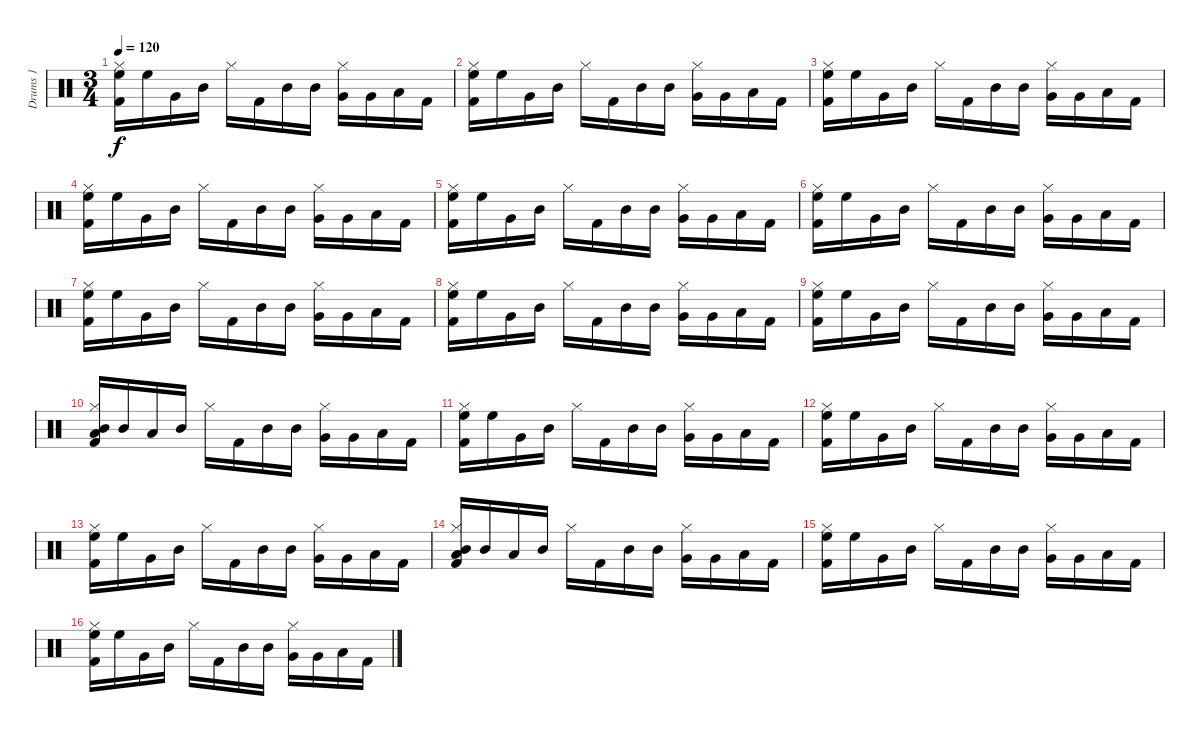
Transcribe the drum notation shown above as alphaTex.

\track ("Drums 1" "Drums 1") {instrument percussion}
\staff {score}
\articulation defaults
\ts (3 4)
\tempo 120
\clef neutral
\ks c
("High Floor Tom (hit)" "Kick (hit) 2" "Hi-Hat (closed)").16{dy f} "High Floor Tom (hit)".16 "Very Low Tom (hit)".16 "Mid Tom (hit)".16 "Hi-Hat (closed)".16 "Kick (hit) 2".16 "Mid Tom (hit)".16 "Mid Tom (hit)".16 ("Very Low Tom (hit)" "Hi-Hat (closed)").16 "Very Low Tom (hit)".16 "Low Floor Tom (hit)".16 "Kick (hit) 2".16 |
("High Floor Tom (hit)" "Kick (hit) 2" "Hi-Hat (closed)").16 "High Floor Tom (hit)".16 "Very Low Tom (hit)".16 "Mid Tom (hit)".16 "Hi-Hat (closed)".16 "Kick (hit) 2".16 "Mid Tom (hit)".16 "Mid Tom (hit)".16 ("Very Low Tom (hit)" "Hi-Hat (closed)").16 "Very Low Tom (hit)".16 "Low Floor Tom (hit)".16 "Kick (hit) 2".16 |
("High Floor Tom (hit)" "Kick (hit) 2" "Hi-Hat (closed)").16 "High Floor Tom (hit)".16 "Very Low Tom (hit)".16 "Mid Tom (hit)".16 "Hi-Hat (closed)".16 "Kick (hit) 2".16 "Mid Tom (hit)".16 "Mid Tom (hit)".16 ("Very Low Tom (hit)" "Hi-Hat (closed)").16 "Very Low Tom (hit)".16 "Low Floor Tom (hit)".16 "Kick (hit) 2".16 |
("High Floor Tom (hit)" "Kick (hit) 2" "Hi-Hat (closed)").16 "High Floor Tom (hit)".16 "Very Low Tom (hit)".16 "Mid Tom (hit)".16 "Hi-Hat (closed)".16 "Kick (hit) 2".16 "Mid Tom (hit)".16 "Mid Tom (hit)".16 ("Very Low Tom (hit)" "Hi-Hat (closed)").16 "Very Low Tom (hit)".16 "Low Floor Tom (hit)".16 "Kick (hit) 2".16 |
("High Floor Tom (hit)" "Kick (hit) 2" "Hi-Hat (closed)").16 "High Floor Tom (hit)".16 "Very Low Tom (hit)".16 "Mid Tom (hit)".16 "Hi-Hat (closed)".16 "Kick (hit) 2".16 "Mid Tom (hit)".16 "Mid Tom (hit)".16 ("Very Low Tom (hit)" "Hi-Hat (closed)").16 "Very Low Tom (hit)".16 "Low Floor Tom (hit)".16 "Kick (hit) 2".16 |
("High Floor Tom (hit)" "Kick (hit) 2" "Hi-Hat (closed)").16 "High Floor Tom (hit)".16 "Very Low Tom (hit)".16 "Mid Tom (hit)".16 "Hi-Hat (closed)".16 "Kick (hit) 2".16 "Mid Tom (hit)".16 "Mid Tom (hit)".16 ("Very Low Tom (hit)" "Hi-Hat (closed)").16 "Very Low Tom (hit)".16 "Low Floor Tom (hit)".16 "Kick (hit) 2".16 |
("High Floor Tom (hit)" "Kick (hit) 2" "Hi-Hat (closed)").16 "High Floor Tom (hit)".16 "Very Low Tom (hit)".16 "Mid Tom (hit)".16 "Hi-Hat (closed)".16 "Kick (hit) 2".16 "Mid Tom (hit)".16 "Mid Tom (hit)".16 ("Very Low Tom (hit)" "Hi-Hat (closed)").16 "Very Low Tom (hit)".16 "Low Floor Tom (hit)".16 "Kick (hit) 2".16 |
("High Floor Tom (hit)" "Kick (hit) 2" "Hi-Hat (closed)").16 "High Floor Tom (hit)".16 "Very Low Tom (hit)".16 "Mid Tom (hit)".16 "Hi-Hat (closed)".16 "Kick (hit) 2".16 "Mid Tom (hit)".16 "Mid Tom (hit)".16 ("Very Low Tom (hit)" "Hi-Hat (closed)").16 "Very Low Tom (hit)".16 "Low Floor Tom (hit)".16 "Kick (hit) 2".16 |
("High Floor Tom (hit)" "Kick (hit) 2" "Hi-Hat (closed)").16 "High Floor Tom (hit)".16 "Very Low Tom (hit)".16 "Mid Tom (hit)".16 "Hi-Hat (closed)".16 "Kick (hit) 2".16 "Mid Tom (hit)".16 "Mid Tom (hit)".16 ("Very Low Tom (hit)" "Hi-Hat (closed)").16 "Very Low Tom (hit)".16 "Low Floor Tom (hit)".16 "Kick (hit) 2".16 |
("Mid Tom (hit)" "Low Floor Tom (hit)" "Kick (hit) 2" "Hi-Hat (closed)").16 "Mid Tom (hit)".16 "Low Floor Tom (hit)".16 "Mid Tom (hit)".16 "Hi-Hat (closed)".16 "Kick (hit) 2".16 "Mid Tom (hit)".16 "Mid Tom (hit)".16 ("Very Low Tom (hit)" "Hi-Hat (closed)").16 "Very Low Tom (hit)".16 "Low Floor Tom (hit)".16 "Kick (hit) 2".16 |
("High Floor Tom (hit)" "Kick (hit) 2" "Hi-Hat (closed)").16 "High Floor Tom (hit)".16 "Very Low Tom (hit)".16 "Mid Tom (hit)".16 "Hi-Hat (closed)".16 "Kick (hit) 2".16 "Mid Tom (hit)".16 "Mid Tom (hit)".16 ("Very Low Tom (hit)" "Hi-Hat (closed)").16 "Very Low Tom (hit)".16 "Low Floor Tom (hit)".16 "Kick (hit) 2".16 |
("High Floor Tom (hit)" "Kick (hit) 2" "Hi-Hat (closed)").16 "High Floor Tom (hit)".16 "Very Low Tom (hit)".16 "Mid Tom (hit)".16 "Hi-Hat (closed)".16 "Kick (hit) 2".16 "Mid Tom (hit)".16 "Mid Tom (hit)".16 ("Very Low Tom (hit)" "Hi-Hat (closed)").16 "Very Low Tom (hit)".16 "Low Floor Tom (hit)".16 "Kick (hit) 2".16 |
("High Floor Tom (hit)" "Kick (hit) 2" "Hi-Hat (closed)").16 "High Floor Tom (hit)".16 "Very Low Tom (hit)".16 "Mid Tom (hit)".16 "Hi-Hat (closed)".16 "Kick (hit) 2".16 "Mid Tom (hit)".16 "Mid Tom (hit)".16 ("Very Low Tom (hit)" "Hi-Hat (closed)").16 "Very Low Tom (hit)".16 "Low Floor Tom (hit)".16 "Kick (hit) 2".16 |
("Mid Tom (hit)" "Low Floor Tom (hit)" "Kick (hit) 2" "Hi-Hat (closed)").16 "Mid Tom (hit)".16 "Low Floor Tom (hit)".16 "Mid Tom (hit)".16 "Hi-Hat (closed)".16 "Kick (hit) 2".16 "Mid Tom (hit)".16 "Mid Tom (hit)".16 ("Very Low Tom (hit)" "Hi-Hat (closed)").16 "Very Low Tom (hit)".16 "Low Floor Tom (hit)".16 "Kick (hit) 2".16 |
("High Floor Tom (hit)" "Kick (hit) 2" "Hi-Hat (closed)").16 "High Floor Tom (hit)".16 "Very Low Tom (hit)".16 "Mid Tom (hit)".16 "Hi-Hat (closed)".16 "Kick (hit) 2".16 "Mid Tom (hit)".16 "Mid Tom (hit)".16 ("Very Low Tom (hit)" "Hi-Hat (closed)").16 "Very Low Tom (hit)".16 "Low Floor Tom (hit)".16 "Kick (hit) 2".16 |
("High Floor Tom (hit)" "Kick (hit) 2" "Hi-Hat (closed)").16 "High Floor Tom (hit)".16 "Very Low Tom (hit)".16 "Mid Tom (hit)".16 "Hi-Hat (closed)".16 "Kick (hit) 2".16 "Mid Tom (hit)".16 "Mid Tom (hit)".16 ("Very Low Tom (hit)" "Hi-Hat (closed)").16 "Very Low Tom (hit)".16 "Low Floor Tom (hit)".16 "Kick (hit) 2".16
